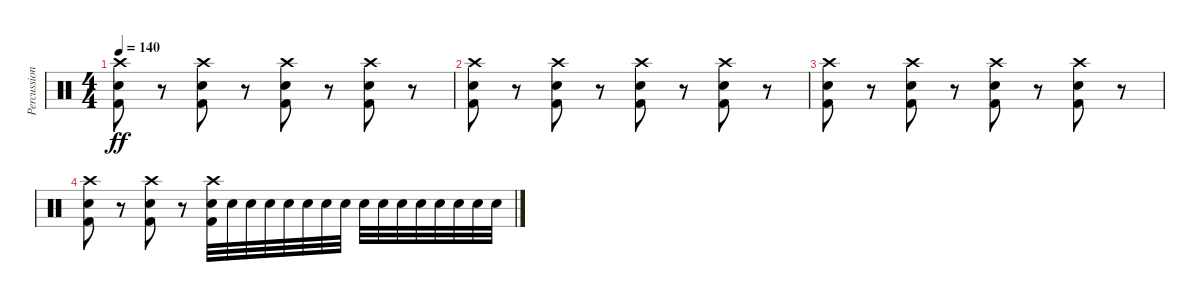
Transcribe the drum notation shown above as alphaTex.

\track ("Percussion" "Percussion") {instrument percussion}
\staff {score}
\articulation defaults
\ts (4 4)
\tempo 140
\clef neutral
\ks c
("Snare (hit) 2" "Kick (hit) 2" "Crash high (hit)").8{dy ff} r.8 ("Snare (hit) 2" "Kick (hit) 2" "Crash high (hit)").8 r.8 ("Snare (hit) 2" "Kick (hit) 2" "Crash high (hit)").8 r.8 ("Snare (hit) 2" "Kick (hit) 2" "Crash high (hit)").8 r.8 |
("Snare (hit) 2" "Kick (hit) 2" "Crash high (hit)").8 r.8 ("Snare (hit) 2" "Kick (hit) 2" "Crash high (hit)").8 r.8 ("Snare (hit) 2" "Kick (hit) 2" "Crash high (hit)").8 r.8 ("Snare (hit) 2" "Kick (hit) 2" "Crash high (hit)").8 r.8 |
("Snare (hit) 2" "Kick (hit) 2" "Crash high (hit)").8 r.8 ("Snare (hit) 2" "Kick (hit) 2" "Crash high (hit)").8 r.8 ("Snare (hit) 2" "Kick (hit) 2" "Crash high (hit)").8 r.8 ("Snare (hit) 2" "Kick (hit) 2" "Crash high (hit)").8 r.8 |
("Kick (hit) 2" "Crash high (hit)" "Snare (hit) 2").8 r.8 ("Snare (hit) 2" "Kick (hit) 2" "Crash high (hit)").8 r.8 ("Snare (hit) 2" "Kick (hit) 2" "Crash high (hit)").32 "Snare (hit) 2".32 "Snare (hit) 2".32 "Snare (hit) 2".32 "Snare (hit) 2".32 "Snare (hit) 2".32 "Snare (hit) 2".32 "Snare (hit) 2".32 "Snare (hit) 2".32 "Snare (hit) 2".32 "Snare (hit) 2".32 "Snare (hit) 2".32 "Snare (hit) 2".32 "Snare (hit) 2".32 "Snare (hit) 2".32 "Snare (hit) 2".32
